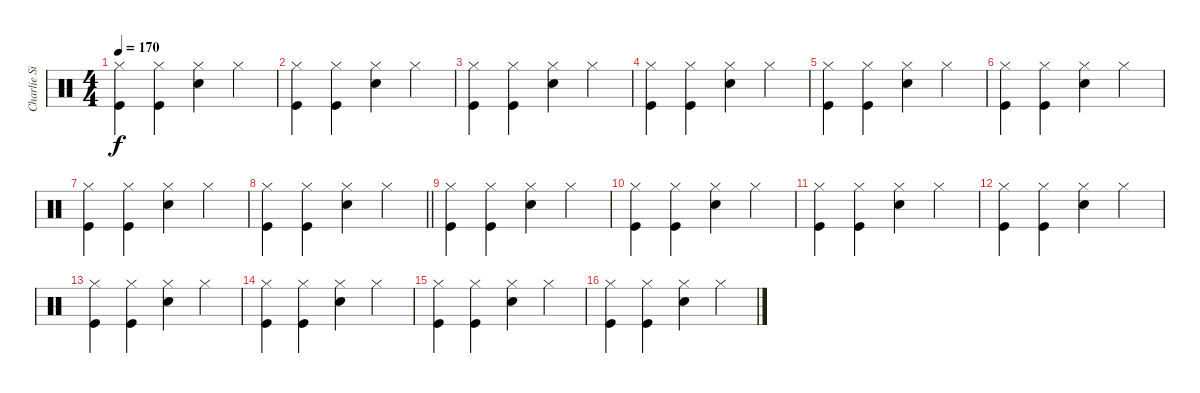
\track ("Charlie Simpson (Drums)" "Charlie Si") {instrument percussion}
\staff {score}
\articulation defaults
\ts (4 4)
\tempo 170
\clef neutral
\ks c
("Hi-Hat (closed)" "Kick (hit)").4{dy f} ("Hi-Hat (closed)" "Kick (hit)").4 ("Hi-Hat (closed)" "Snare (hit) 2").4 "Hi-Hat (closed)".4 |
("Hi-Hat (closed)" "Kick (hit)").4 ("Hi-Hat (closed)" "Kick (hit)").4 ("Hi-Hat (closed)" "Snare (hit) 2").4 "Hi-Hat (closed)".4 |
("Hi-Hat (closed)" "Kick (hit)").4 ("Hi-Hat (closed)" "Kick (hit)").4 ("Hi-Hat (closed)" "Snare (hit) 2").4 "Hi-Hat (closed)".4 |
("Hi-Hat (closed)" "Kick (hit)").4 ("Hi-Hat (closed)" "Kick (hit)").4 ("Hi-Hat (closed)" "Snare (hit) 2").4 "Hi-Hat (closed)".4 |
("Hi-Hat (closed)" "Kick (hit)").4 ("Hi-Hat (closed)" "Kick (hit)").4 ("Hi-Hat (closed)" "Snare (hit) 2").4 "Hi-Hat (closed)".4 |
("Hi-Hat (closed)" "Kick (hit)").4 ("Hi-Hat (closed)" "Kick (hit)").4 ("Hi-Hat (closed)" "Snare (hit) 2").4 "Hi-Hat (closed)".4 |
("Hi-Hat (closed)" "Kick (hit)").4 ("Hi-Hat (closed)" "Kick (hit)").4 ("Hi-Hat (closed)" "Snare (hit) 2").4 "Hi-Hat (closed)".4 |
\barLineRight lightlight
("Hi-Hat (closed)" "Kick (hit)").4 ("Hi-Hat (closed)" "Kick (hit)").4 ("Hi-Hat (closed)" "Snare (hit) 2").4 "Hi-Hat (closed)".4 |
("Hi-Hat (closed)" "Kick (hit)").4 ("Hi-Hat (closed)" "Kick (hit)").4 ("Hi-Hat (closed)" "Snare (hit) 2").4 "Hi-Hat (closed)".4 |
("Hi-Hat (closed)" "Kick (hit)").4 ("Hi-Hat (closed)" "Kick (hit)").4 ("Hi-Hat (closed)" "Snare (hit) 2").4 "Hi-Hat (closed)".4 |
("Hi-Hat (closed)" "Kick (hit)").4 ("Hi-Hat (closed)" "Kick (hit)").4 ("Hi-Hat (closed)" "Snare (hit) 2").4 "Hi-Hat (closed)".4 |
("Hi-Hat (closed)" "Kick (hit)").4 ("Hi-Hat (closed)" "Kick (hit)").4 ("Hi-Hat (closed)" "Snare (hit) 2").4 "Hi-Hat (closed)".4 |
("Hi-Hat (closed)" "Kick (hit)").4 ("Hi-Hat (closed)" "Kick (hit)").4 ("Hi-Hat (closed)" "Snare (hit) 2").4 "Hi-Hat (closed)".4 |
("Hi-Hat (closed)" "Kick (hit)").4 ("Hi-Hat (closed)" "Kick (hit)").4 ("Hi-Hat (closed)" "Snare (hit) 2").4 "Hi-Hat (closed)".4 |
("Hi-Hat (closed)" "Kick (hit)").4 ("Hi-Hat (closed)" "Kick (hit)").4 ("Hi-Hat (closed)" "Snare (hit) 2").4 "Hi-Hat (closed)".4 |
("Hi-Hat (closed)" "Kick (hit)").4 ("Hi-Hat (closed)" "Kick (hit)").4 ("Hi-Hat (closed)" "Snare (hit) 2").4 "Hi-Hat (closed)".4
